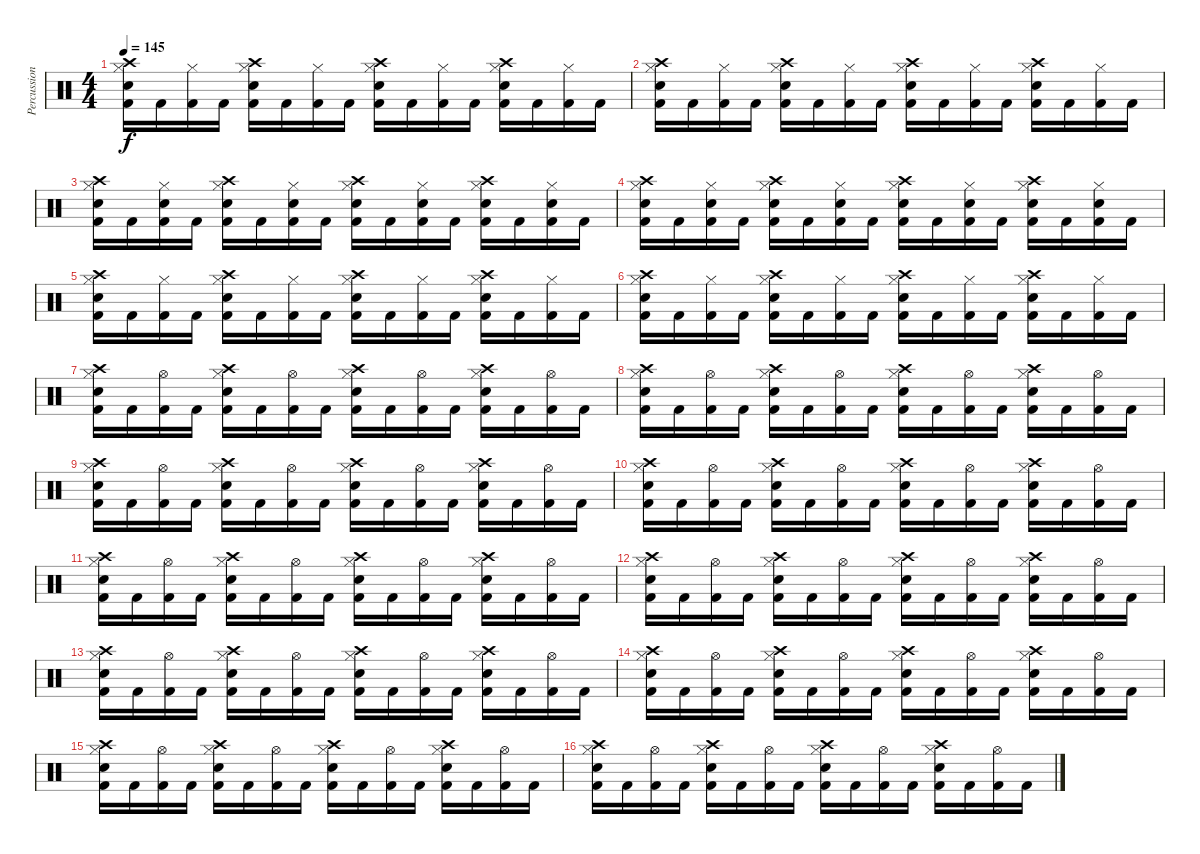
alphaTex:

\track ("Percussions" "Percussion") {instrument percussion}
\staff {score}
\articulation defaults
\ts (4 4)
\tempo 145
\clef neutral
\ks c
("Crash high (hit)" "Hi-Hat (closed)" "Kick (hit) 2" "Snare (hit) 2").16{dy f} "Kick (hit) 2".16 ("Hi-Hat (closed)" "Kick (hit) 2").16 "Kick (hit) 2".16 ("Crash high (hit)" "Hi-Hat (closed)" "Kick (hit) 2" "Snare (hit) 2").16 "Kick (hit) 2".16 ("Hi-Hat (closed)" "Kick (hit) 2").16 "Kick (hit) 2".16 ("Crash high (hit)" "Hi-Hat (closed)" "Kick (hit) 2" "Snare (hit) 2").16 "Kick (hit) 2".16 ("Hi-Hat (closed)" "Kick (hit) 2").16 "Kick (hit) 2".16 ("Crash high (hit)" "Hi-Hat (closed)" "Kick (hit) 2" "Snare (hit) 2").16 "Kick (hit) 2".16 ("Hi-Hat (closed)" "Kick (hit) 2").16 "Kick (hit) 2".16 |
("Crash high (hit)" "Hi-Hat (closed)" "Kick (hit) 2" "Snare (hit) 2").16 "Kick (hit) 2".16 ("Hi-Hat (closed)" "Kick (hit) 2").16 "Kick (hit) 2".16 ("Crash high (hit)" "Hi-Hat (closed)" "Kick (hit) 2" "Snare (hit) 2").16 "Kick (hit) 2".16 ("Hi-Hat (closed)" "Kick (hit) 2").16 "Kick (hit) 2".16 ("Crash high (hit)" "Hi-Hat (closed)" "Kick (hit) 2" "Snare (hit) 2").16 "Kick (hit) 2".16 ("Hi-Hat (closed)" "Kick (hit) 2").16 "Kick (hit) 2".16 ("Crash high (hit)" "Hi-Hat (closed)" "Kick (hit) 2" "Snare (hit) 2").16 "Kick (hit) 2".16 ("Hi-Hat (closed)" "Kick (hit) 2").16 "Kick (hit) 2".16 |
("Crash high (hit)" "Hi-Hat (closed)" "Kick (hit) 2" "Snare (hit) 2").16 "Kick (hit) 2".16 ("Hi-Hat (closed)" "Kick (hit) 2" "Snare (hit) 2").16 "Kick (hit) 2".16 ("Crash high (hit)" "Hi-Hat (closed)" "Kick (hit) 2" "Snare (hit) 2").16 "Kick (hit) 2".16 ("Hi-Hat (closed)" "Kick (hit) 2" "Snare (hit) 2").16 "Kick (hit) 2".16 ("Crash high (hit)" "Hi-Hat (closed)" "Kick (hit) 2" "Snare (hit) 2").16 "Kick (hit) 2".16 ("Hi-Hat (closed)" "Kick (hit) 2" "Snare (hit) 2").16 "Kick (hit) 2".16 ("Crash high (hit)" "Hi-Hat (closed)" "Kick (hit) 2" "Snare (hit) 2").16 "Kick (hit) 2".16 ("Hi-Hat (closed)" "Kick (hit) 2" "Snare (hit) 2").16 "Kick (hit) 2".16 |
("Crash high (hit)" "Hi-Hat (closed)" "Kick (hit) 2" "Snare (hit) 2").16 "Kick (hit) 2".16 ("Hi-Hat (closed)" "Kick (hit) 2" "Snare (hit) 2").16 "Kick (hit) 2".16 ("Crash high (hit)" "Hi-Hat (closed)" "Kick (hit) 2" "Snare (hit) 2").16 "Kick (hit) 2".16 ("Hi-Hat (closed)" "Kick (hit) 2" "Snare (hit) 2").16 "Kick (hit) 2".16 ("Crash high (hit)" "Hi-Hat (closed)" "Kick (hit) 2" "Snare (hit) 2").16 "Kick (hit) 2".16 ("Hi-Hat (closed)" "Kick (hit) 2" "Snare (hit) 2").16 "Kick (hit) 2".16 ("Crash high (hit)" "Hi-Hat (closed)" "Kick (hit) 2" "Snare (hit) 2").16 "Kick (hit) 2".16 ("Hi-Hat (closed)" "Kick (hit) 2" "Snare (hit) 2").16 "Kick (hit) 2".16 |
("Crash high (hit)" "Hi-Hat (closed)" "Kick (hit) 2" "Snare (hit) 2").16 "Kick (hit) 2".16 ("Hi-Hat (closed)" "Kick (hit) 2").16 "Kick (hit) 2".16 ("Crash high (hit)" "Hi-Hat (closed)" "Kick (hit) 2" "Snare (hit) 2").16 "Kick (hit) 2".16 ("Hi-Hat (closed)" "Kick (hit) 2").16 "Kick (hit) 2".16 ("Crash high (hit)" "Hi-Hat (closed)" "Kick (hit) 2" "Snare (hit) 2").16 "Kick (hit) 2".16 ("Hi-Hat (closed)" "Kick (hit) 2").16 "Kick (hit) 2".16 ("Crash high (hit)" "Hi-Hat (closed)" "Kick (hit) 2" "Snare (hit) 2").16 "Kick (hit) 2".16 ("Hi-Hat (closed)" "Kick (hit) 2").16 "Kick (hit) 2".16 |
("Crash high (hit)" "Hi-Hat (closed)" "Kick (hit) 2" "Snare (hit) 2").16 "Kick (hit) 2".16 ("Hi-Hat (closed)" "Kick (hit) 2").16 "Kick (hit) 2".16 ("Crash high (hit)" "Hi-Hat (closed)" "Kick (hit) 2" "Snare (hit) 2").16 "Kick (hit) 2".16 ("Hi-Hat (closed)" "Kick (hit) 2").16 "Kick (hit) 2".16 ("Crash high (hit)" "Hi-Hat (closed)" "Kick (hit) 2" "Snare (hit) 2").16 "Kick (hit) 2".16 ("Hi-Hat (closed)" "Kick (hit) 2").16 "Kick (hit) 2".16 ("Crash high (hit)" "Hi-Hat (closed)" "Kick (hit) 2" "Snare (hit) 2").16 "Kick (hit) 2".16 ("Hi-Hat (closed)" "Kick (hit) 2").16 "Kick (hit) 2".16 |
("Crash high (hit)" "Hi-Hat (closed)" "Kick (hit) 2" "Snare (hit) 2").16 "Kick (hit) 2".16 ("Hi-Hat (open)" "Kick (hit) 2").16 "Kick (hit) 2".16 ("Crash high (hit)" "Hi-Hat (closed)" "Kick (hit) 2" "Snare (hit) 2").16 "Kick (hit) 2".16 ("Hi-Hat (open)" "Kick (hit) 2").16 "Kick (hit) 2".16 ("Crash high (hit)" "Hi-Hat (closed)" "Kick (hit) 2" "Snare (hit) 2").16 "Kick (hit) 2".16 ("Hi-Hat (open)" "Kick (hit) 2").16 "Kick (hit) 2".16 ("Crash high (hit)" "Hi-Hat (closed)" "Kick (hit) 2" "Snare (hit) 2").16 "Kick (hit) 2".16 ("Hi-Hat (open)" "Kick (hit) 2").16 "Kick (hit) 2".16 |
("Crash high (hit)" "Hi-Hat (closed)" "Kick (hit) 2" "Snare (hit) 2").16 "Kick (hit) 2".16 ("Hi-Hat (open)" "Kick (hit) 2").16 "Kick (hit) 2".16 ("Crash high (hit)" "Hi-Hat (closed)" "Kick (hit) 2" "Snare (hit) 2").16 "Kick (hit) 2".16 ("Hi-Hat (open)" "Kick (hit) 2").16 "Kick (hit) 2".16 ("Crash high (hit)" "Hi-Hat (closed)" "Kick (hit) 2" "Snare (hit) 2").16 "Kick (hit) 2".16 ("Hi-Hat (open)" "Kick (hit) 2").16 "Kick (hit) 2".16 ("Crash high (hit)" "Hi-Hat (closed)" "Kick (hit) 2" "Snare (hit) 2").16 "Kick (hit) 2".16 ("Hi-Hat (open)" "Kick (hit) 2").16 "Kick (hit) 2".16 |
("Crash high (hit)" "Hi-Hat (closed)" "Kick (hit) 2" "Snare (hit) 2").16 "Kick (hit) 2".16 ("Hi-Hat (open)" "Kick (hit) 2").16 "Kick (hit) 2".16 ("Crash high (hit)" "Hi-Hat (closed)" "Kick (hit) 2" "Snare (hit) 2").16 "Kick (hit) 2".16 ("Hi-Hat (open)" "Kick (hit) 2").16 "Kick (hit) 2".16 ("Crash high (hit)" "Hi-Hat (closed)" "Kick (hit) 2" "Snare (hit) 2").16 "Kick (hit) 2".16 ("Hi-Hat (open)" "Kick (hit) 2").16 "Kick (hit) 2".16 ("Crash high (hit)" "Hi-Hat (closed)" "Kick (hit) 2" "Snare (hit) 2").16 "Kick (hit) 2".16 ("Hi-Hat (open)" "Kick (hit) 2").16 "Kick (hit) 2".16 |
("Crash high (hit)" "Hi-Hat (closed)" "Kick (hit) 2" "Snare (hit) 2").16 "Kick (hit) 2".16 ("Hi-Hat (open)" "Kick (hit) 2").16 "Kick (hit) 2".16 ("Crash high (hit)" "Hi-Hat (closed)" "Kick (hit) 2" "Snare (hit) 2").16 "Kick (hit) 2".16 ("Hi-Hat (open)" "Kick (hit) 2").16 "Kick (hit) 2".16 ("Crash high (hit)" "Hi-Hat (closed)" "Kick (hit) 2" "Snare (hit) 2").16 "Kick (hit) 2".16 ("Hi-Hat (open)" "Kick (hit) 2").16 "Kick (hit) 2".16 ("Crash high (hit)" "Hi-Hat (closed)" "Kick (hit) 2" "Snare (hit) 2").16 "Kick (hit) 2".16 ("Hi-Hat (open)" "Kick (hit) 2").16 "Kick (hit) 2".16 |
("Crash high (hit)" "Hi-Hat (closed)" "Kick (hit) 2" "Snare (hit) 2").16 "Kick (hit) 2".16 ("Hi-Hat (open)" "Kick (hit) 2").16 "Kick (hit) 2".16 ("Crash high (hit)" "Hi-Hat (closed)" "Kick (hit) 2" "Snare (hit) 2").16 "Kick (hit) 2".16 ("Hi-Hat (open)" "Kick (hit) 2").16 "Kick (hit) 2".16 ("Crash high (hit)" "Hi-Hat (closed)" "Kick (hit) 2" "Snare (hit) 2").16 "Kick (hit) 2".16 ("Hi-Hat (open)" "Kick (hit) 2").16 "Kick (hit) 2".16 ("Crash high (hit)" "Hi-Hat (closed)" "Kick (hit) 2" "Snare (hit) 2").16 "Kick (hit) 2".16 ("Hi-Hat (open)" "Kick (hit) 2").16 "Kick (hit) 2".16 |
("Crash high (hit)" "Hi-Hat (closed)" "Kick (hit) 2" "Snare (hit) 2").16 "Kick (hit) 2".16 ("Hi-Hat (open)" "Kick (hit) 2").16 "Kick (hit) 2".16 ("Crash high (hit)" "Hi-Hat (closed)" "Kick (hit) 2" "Snare (hit) 2").16 "Kick (hit) 2".16 ("Hi-Hat (open)" "Kick (hit) 2").16 "Kick (hit) 2".16 ("Crash high (hit)" "Hi-Hat (closed)" "Kick (hit) 2" "Snare (hit) 2").16 "Kick (hit) 2".16 ("Hi-Hat (open)" "Kick (hit) 2").16 "Kick (hit) 2".16 ("Crash high (hit)" "Hi-Hat (closed)" "Kick (hit) 2" "Snare (hit) 2").16 "Kick (hit) 2".16 ("Hi-Hat (open)" "Kick (hit) 2").16 "Kick (hit) 2".16 |
("Crash high (hit)" "Hi-Hat (closed)" "Kick (hit) 2" "Snare (hit) 2").16 "Kick (hit) 2".16 ("Hi-Hat (open)" "Kick (hit) 2").16 "Kick (hit) 2".16 ("Crash high (hit)" "Hi-Hat (closed)" "Kick (hit) 2" "Snare (hit) 2").16 "Kick (hit) 2".16 ("Hi-Hat (open)" "Kick (hit) 2").16 "Kick (hit) 2".16 ("Crash high (hit)" "Hi-Hat (closed)" "Kick (hit) 2" "Snare (hit) 2").16 "Kick (hit) 2".16 ("Hi-Hat (open)" "Kick (hit) 2").16 "Kick (hit) 2".16 ("Crash high (hit)" "Hi-Hat (closed)" "Kick (hit) 2" "Snare (hit) 2").16 "Kick (hit) 2".16 ("Hi-Hat (open)" "Kick (hit) 2").16 "Kick (hit) 2".16 |
("Crash high (hit)" "Hi-Hat (closed)" "Kick (hit) 2" "Snare (hit) 2").16 "Kick (hit) 2".16 ("Hi-Hat (open)" "Kick (hit) 2").16 "Kick (hit) 2".16 ("Crash high (hit)" "Hi-Hat (closed)" "Kick (hit) 2" "Snare (hit) 2").16 "Kick (hit) 2".16 ("Hi-Hat (open)" "Kick (hit) 2").16 "Kick (hit) 2".16 ("Crash high (hit)" "Hi-Hat (closed)" "Kick (hit) 2" "Snare (hit) 2").16 "Kick (hit) 2".16 ("Hi-Hat (open)" "Kick (hit) 2").16 "Kick (hit) 2".16 ("Crash high (hit)" "Hi-Hat (closed)" "Kick (hit) 2" "Snare (hit) 2").16 "Kick (hit) 2".16 ("Hi-Hat (open)" "Kick (hit) 2").16 "Kick (hit) 2".16 |
("Crash high (hit)" "Hi-Hat (closed)" "Kick (hit) 2" "Snare (hit) 2").16 "Kick (hit) 2".16 ("Hi-Hat (open)" "Kick (hit) 2").16 "Kick (hit) 2".16 ("Crash high (hit)" "Hi-Hat (closed)" "Kick (hit) 2" "Snare (hit) 2").16 "Kick (hit) 2".16 ("Hi-Hat (open)" "Kick (hit) 2").16 "Kick (hit) 2".16 ("Crash high (hit)" "Hi-Hat (closed)" "Kick (hit) 2" "Snare (hit) 2").16 "Kick (hit) 2".16 ("Hi-Hat (open)" "Kick (hit) 2").16 "Kick (hit) 2".16 ("Crash high (hit)" "Hi-Hat (closed)" "Kick (hit) 2" "Snare (hit) 2").16 "Kick (hit) 2".16 ("Hi-Hat (open)" "Kick (hit) 2").16 "Kick (hit) 2".16 |
("Crash high (hit)" "Hi-Hat (closed)" "Kick (hit) 2" "Snare (hit) 2").16 "Kick (hit) 2".16 ("Hi-Hat (open)" "Kick (hit) 2").16 "Kick (hit) 2".16 ("Crash high (hit)" "Hi-Hat (closed)" "Kick (hit) 2" "Snare (hit) 2").16 "Kick (hit) 2".16 ("Hi-Hat (open)" "Kick (hit) 2").16 "Kick (hit) 2".16 ("Crash high (hit)" "Hi-Hat (closed)" "Kick (hit) 2" "Snare (hit) 2").16 "Kick (hit) 2".16 ("Hi-Hat (open)" "Kick (hit) 2").16 "Kick (hit) 2".16 ("Crash high (hit)" "Hi-Hat (closed)" "Kick (hit) 2" "Snare (hit) 2").16 "Kick (hit) 2".16 ("Hi-Hat (open)" "Kick (hit) 2").16 "Kick (hit) 2".16
